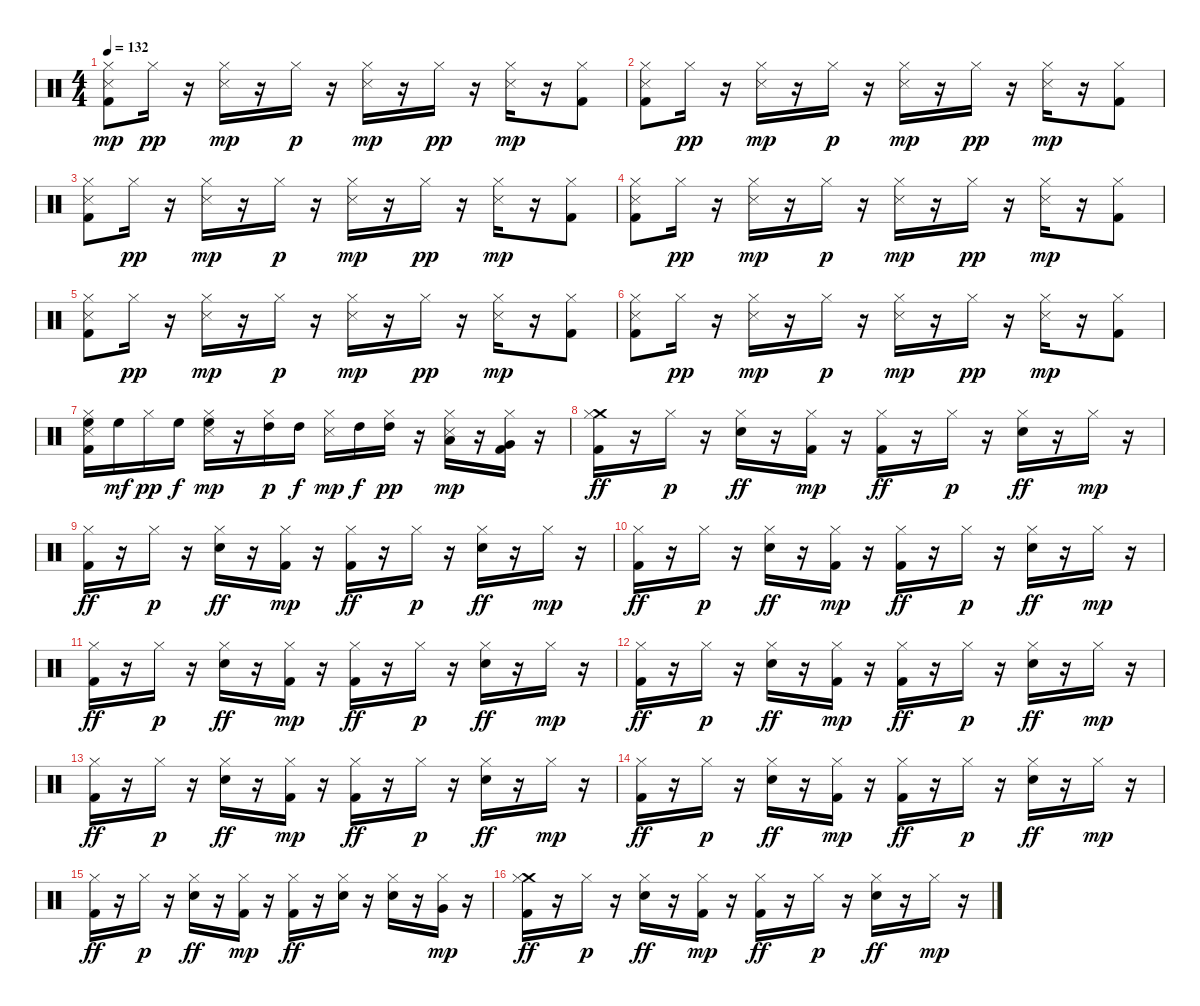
\track "" {instrument percussion}
\staff {score}
\articulation defaults
\ts (4 4)
\tempo 132
\clef neutral
\ks c
("Snare (side stick) 3" "Hi-Hat (closed)" "Kick (hit) 2").8{dy mp} "Hi-Hat (closed)".16{dy pp} r.16 ("Snare (side stick) 3" "Hi-Hat (closed)").16{dy mp} r.16 "Hi-Hat (closed)".16{dy p} r.16 ("Snare (side stick) 3" "Hi-Hat (closed)").16{dy mp} r.16 "Hi-Hat (closed)".16{dy pp} r.16 ("Snare (side stick) 3" "Hi-Hat (closed)").16{dy mp} r.16 ("Hi-Hat (closed)" "Kick (hit) 2").8 |
("Snare (side stick) 3" "Hi-Hat (closed)" "Kick (hit) 2").8 "Hi-Hat (closed)".16{dy pp} r.16 ("Snare (side stick) 3" "Hi-Hat (closed)").16{dy mp} r.16 "Hi-Hat (closed)".16{dy p} r.16 ("Snare (side stick) 3" "Hi-Hat (closed)").16{dy mp} r.16 "Hi-Hat (closed)".16{dy pp} r.16 ("Snare (side stick) 3" "Hi-Hat (closed)").16{dy mp} r.16 ("Hi-Hat (closed)" "Kick (hit) 2").8 |
("Snare (side stick) 3" "Hi-Hat (closed)" "Kick (hit) 2").8 "Hi-Hat (closed)".16{dy pp} r.16 ("Snare (side stick) 3" "Hi-Hat (closed)").16{dy mp} r.16 "Hi-Hat (closed)".16{dy p} r.16 ("Snare (side stick) 3" "Hi-Hat (closed)").16{dy mp} r.16 "Hi-Hat (closed)".16{dy pp} r.16 ("Snare (side stick) 3" "Hi-Hat (closed)").16{dy mp} r.16 ("Hi-Hat (closed)" "Kick (hit) 2").8 |
("Snare (side stick) 3" "Hi-Hat (closed)" "Kick (hit) 2").8 "Hi-Hat (closed)".16{dy pp} r.16 ("Snare (side stick) 3" "Hi-Hat (closed)").16{dy mp} r.16 "Hi-Hat (closed)".16{dy p} r.16 ("Snare (side stick) 3" "Hi-Hat (closed)").16{dy mp} r.16 "Hi-Hat (closed)".16{dy pp} r.16 ("Snare (side stick) 3" "Hi-Hat (closed)").16{dy mp} r.16 ("Hi-Hat (closed)" "Kick (hit) 2").8 |
("Snare (side stick) 3" "Hi-Hat (closed)" "Kick (hit) 2").8 "Hi-Hat (closed)".16{dy pp} r.16 ("Snare (side stick) 3" "Hi-Hat (closed)").16{dy mp} r.16 "Hi-Hat (closed)".16{dy p} r.16 ("Snare (side stick) 3" "Hi-Hat (closed)").16{dy mp} r.16 "Hi-Hat (closed)".16{dy pp} r.16 ("Snare (side stick) 3" "Hi-Hat (closed)").16{dy mp} r.16 ("Hi-Hat (closed)" "Kick (hit) 2").8 |
("Snare (side stick) 3" "Hi-Hat (closed)" "Kick (hit) 2").8 "Hi-Hat (closed)".16{dy pp} r.16 ("Snare (side stick) 3" "Hi-Hat (closed)").16{dy mp} r.16 "Hi-Hat (closed)".16{dy p} r.16 ("Snare (side stick) 3" "Hi-Hat (closed)").16{dy mp} r.16 "Hi-Hat (closed)".16{dy pp} r.16 ("Snare (side stick) 3" "Hi-Hat (closed)").16{dy mp} r.16 ("Hi-Hat (closed)" "Kick (hit) 2").8 |
("High Floor Tom (hit)" "Snare (side stick) 3" "Hi-Hat (closed)" "Kick (hit) 2").16 "High Floor Tom (hit)".16{dy mf} "Hi-Hat (closed)".16{dy pp} "High Floor Tom (hit)".16{dy f} ("High Floor Tom (hit)" "Snare (side stick) 3" "Hi-Hat (closed)").16{dy mp} r.16 ("High Tom (hit)" "Hi-Hat (closed)").16{dy p} "High Tom (hit)".16{dy f} ("Snare (side stick) 3" "Hi-Hat (closed)").16{dy mp} "High Tom (hit)".16{dy f} ("High Tom (hit)" "Hi-Hat (closed)").16{dy pp} r.16 ("Low Tom (hit)" "Snare (side stick) 3" "Hi-Hat (closed)").16{dy mp} r.16 ("Very Low Tom (hit)" "Hi-Hat (closed)" "Kick (hit) 2").16 r.16 |
("Crash medium (hit)" "Hi-Hat (closed)" "Kick (hit) 2").16{dy ff} r.16 "Hi-Hat (closed)".16{dy p} r.16 ("Hi-Hat (closed)" "Snare (hit) 2").16{dy ff} r.16 ("Kick (hit) 2" "Hi-Hat (closed)").16{dy mp} r.16 ("Hi-Hat (closed)" "Kick (hit) 2").16{dy ff} r.16 "Hi-Hat (closed)".16{dy p} r.16 ("Hi-Hat (closed)" "Snare (hit) 2").16{dy ff} r.16 "Hi-Hat (closed)".16{dy mp} r.16 |
("Hi-Hat (closed)" "Kick (hit) 2").16{dy ff} r.16 "Hi-Hat (closed)".16{dy p} r.16 ("Hi-Hat (closed)" "Snare (hit) 2").16{dy ff} r.16 ("Kick (hit) 2" "Hi-Hat (closed)").16{dy mp} r.16 ("Hi-Hat (closed)" "Kick (hit) 2").16{dy ff} r.16 "Hi-Hat (closed)".16{dy p} r.16 ("Hi-Hat (closed)" "Snare (hit) 2").16{dy ff} r.16 "Hi-Hat (closed)".16{dy mp} r.16 |
("Hi-Hat (closed)" "Kick (hit) 2").16{dy ff} r.16 "Hi-Hat (closed)".16{dy p} r.16 ("Hi-Hat (closed)" "Snare (hit) 2").16{dy ff} r.16 ("Kick (hit) 2" "Hi-Hat (closed)").16{dy mp} r.16 ("Hi-Hat (closed)" "Kick (hit) 2").16{dy ff} r.16 "Hi-Hat (closed)".16{dy p} r.16 ("Hi-Hat (closed)" "Snare (hit) 2").16{dy ff} r.16 "Hi-Hat (closed)".16{dy mp} r.16 |
("Hi-Hat (closed)" "Kick (hit) 2").16{dy ff} r.16 "Hi-Hat (closed)".16{dy p} r.16 ("Hi-Hat (closed)" "Snare (hit) 2").16{dy ff} r.16 ("Kick (hit) 2" "Hi-Hat (closed)").16{dy mp} r.16 ("Hi-Hat (closed)" "Kick (hit) 2").16{dy ff} r.16 "Hi-Hat (closed)".16{dy p} r.16 ("Hi-Hat (closed)" "Snare (hit) 2").16{dy ff} r.16 "Hi-Hat (closed)".16{dy mp} r.16 |
("Hi-Hat (closed)" "Kick (hit) 2").16{dy ff} r.16 "Hi-Hat (closed)".16{dy p} r.16 ("Hi-Hat (closed)" "Snare (hit) 2").16{dy ff} r.16 ("Kick (hit) 2" "Hi-Hat (closed)").16{dy mp} r.16 ("Hi-Hat (closed)" "Kick (hit) 2").16{dy ff} r.16 "Hi-Hat (closed)".16{dy p} r.16 ("Hi-Hat (closed)" "Snare (hit) 2").16{dy ff} r.16 "Hi-Hat (closed)".16{dy mp} r.16 |
("Hi-Hat (closed)" "Kick (hit) 2").16{dy ff} r.16 "Hi-Hat (closed)".16{dy p} r.16 ("Hi-Hat (closed)" "Snare (hit) 2").16{dy ff} r.16 ("Kick (hit) 2" "Hi-Hat (closed)").16{dy mp} r.16 ("Hi-Hat (closed)" "Kick (hit) 2").16{dy ff} r.16 "Hi-Hat (closed)".16{dy p} r.16 ("Hi-Hat (closed)" "Snare (hit) 2").16{dy ff} r.16 "Hi-Hat (closed)".16{dy mp} r.16 |
("Hi-Hat (closed)" "Kick (hit) 2").16{dy ff} r.16 "Hi-Hat (closed)".16{dy p} r.16 ("Hi-Hat (closed)" "Snare (hit) 2").16{dy ff} r.16 ("Kick (hit) 2" "Hi-Hat (closed)").16{dy mp} r.16 ("Hi-Hat (closed)" "Kick (hit) 2").16{dy ff} r.16 "Hi-Hat (closed)".16{dy p} r.16 ("Hi-Hat (closed)" "Snare (hit) 2").16{dy ff} r.16 "Hi-Hat (closed)".16{dy mp} r.16 |
("Hi-Hat (closed)" "Kick (hit) 2").16{dy ff} r.16 "Hi-Hat (closed)".16{dy p} r.16 ("Hi-Hat (closed)" "Snare (hit) 2").16{dy ff} r.16 ("Kick (hit) 2" "Hi-Hat (closed)").16{dy mp} r.16 ("Hi-Hat (closed)" "Kick (hit) 2").16{dy ff} r.16 ("Hi-Hat (closed)" "Snare (hit) 2").16 r.16 ("Hi-Hat (closed)" "Snare (hit) 2").16 r.16 ("Very Low Tom (hit)" "Hi-Hat (closed)").16{dy mp} r.16 |
("Crash medium (hit)" "Hi-Hat (closed)" "Kick (hit) 2").16{dy ff} r.16 "Hi-Hat (closed)".16{dy p} r.16 ("Hi-Hat (closed)" "Snare (hit) 2").16{dy ff} r.16 ("Kick (hit) 2" "Hi-Hat (closed)").16{dy mp} r.16 ("Hi-Hat (closed)" "Kick (hit) 2").16{dy ff} r.16 "Hi-Hat (closed)".16{dy p} r.16 ("Hi-Hat (closed)" "Snare (hit) 2").16{dy ff} r.16 "Hi-Hat (closed)".16{dy mp} r.16
